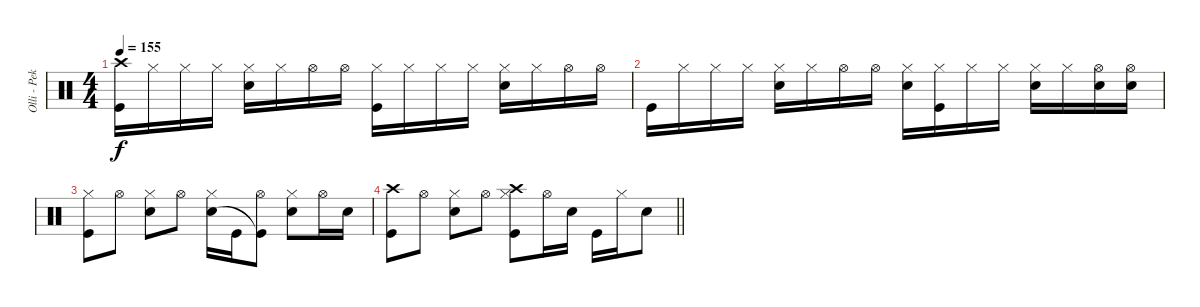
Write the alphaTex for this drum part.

\track ("Olli - Pekka" "Olli - Pek") {instrument percussion}
\staff {score}
\articulation defaults
\ts (4 4)
\tempo 155
\clef neutral
\ks c
("Crash high (hit)" "Kick (hit)").16{dy f} "Hi-Hat (closed)".16 "Hi-Hat (closed)".16 "Hi-Hat (closed)".16 ("Hi-Hat (closed)" "Snare (hit) 2").16 "Hi-Hat (closed)".16 "Hi-Hat (open)".16 "Hi-Hat (open)".16 ("Hi-Hat (closed)" "Kick (hit)").16 "Hi-Hat (closed)".16 "Hi-Hat (closed)".16 "Hi-Hat (closed)".16 ("Hi-Hat (closed)" "Snare (hit) 2").16 "Hi-Hat (closed)".16 "Hi-Hat (open)".16 "Hi-Hat (open)".16 |
"Kick (hit)".16 "Hi-Hat (closed)".16 "Hi-Hat (closed)".16 "Hi-Hat (closed)".16 ("Hi-Hat (closed)" "Snare (hit) 2").16 "Hi-Hat (closed)".16 "Hi-Hat (open)".16 "Hi-Hat (open)".16 ("Hi-Hat (closed)" "Snare (hit) 2").16 ("Hi-Hat (closed)" "Kick (hit)").16 "Hi-Hat (closed)".16 "Hi-Hat (closed)".16 ("Hi-Hat (closed)" "Snare (hit) 2").16 "Hi-Hat (closed)".16 ("Hi-Hat (open)" "Snare (hit) 2").16 ("Hi-Hat (open)" "Snare (hit) 2").16 |
("Hi-Hat (closed)" "Kick (hit)").8 "Hi-Hat (open)".8 ("Hi-Hat (closed)" "Snare (hit) 2").8 "Hi-Hat (open)".8 ("Hi-Hat (closed)" "Snare (hit) 2").16 "Kick (hit)".16 ("Hi-Hat (open)" "Kick (hit)"{t}).8 ("Hi-Hat (closed)" "Snare (hit) 2").8 "Hi-Hat (open)".16 "Snare (hit) 2".16 |
\barLineRight lightlight
("Crash high (hit)" "Kick (hit)").8 "Hi-Hat (open)".8 ("Hi-Hat (closed)" "Snare (hit) 2").8 "Hi-Hat (open)".8 ("Crash high (hit)" "Hi-Hat (closed)" "Kick (hit)").8 "Hi-Hat (open)".16 "Snare (hit) 2".16 "Kick (hit)".16 "Hi-Hat (closed)".16 "Snare (hit) 2".8
